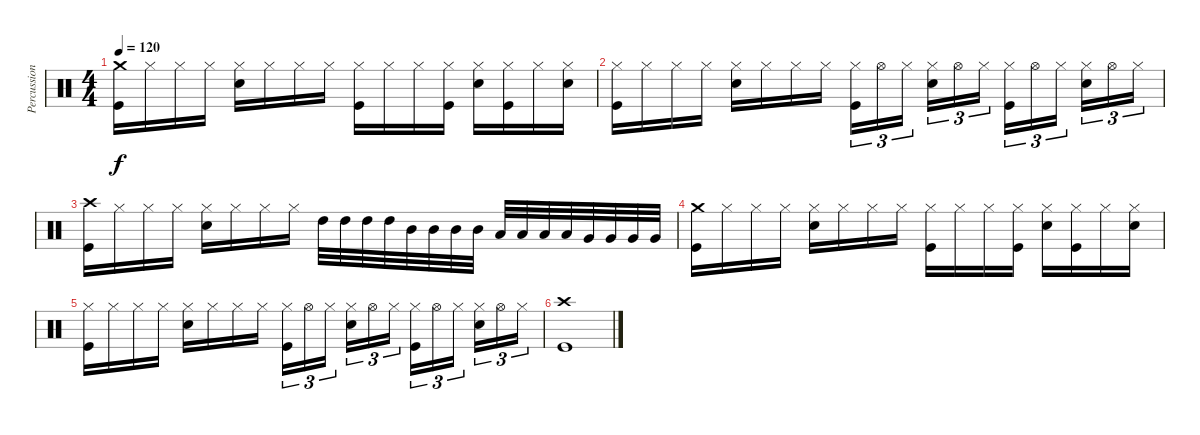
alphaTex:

\track ("Percussion" "Percussion") {instrument percussion}
\staff {score}
\articulation defaults
\ts (4 4)
\tempo 120
\clef neutral
\ks c
("Crash medium (hit)" "Kick (hit)").16{dy f} "Hi-Hat (closed)".16 "Hi-Hat (closed)".16 "Hi-Hat (closed)".16 ("Hi-Hat (closed)" "Electric Snare (hit)").16 "Hi-Hat (closed)".16 "Hi-Hat (closed)".16 "Hi-Hat (closed)".16 ("Hi-Hat (closed)" "Kick (hit)").16 "Hi-Hat (closed)".16 "Hi-Hat (closed)".16 ("Hi-Hat (closed)" "Kick (hit)").16 ("Hi-Hat (closed)" "Electric Snare (hit)").16 ("Hi-Hat (closed)" "Kick (hit)").16 "Hi-Hat (closed)".16 ("Hi-Hat (closed)" "Electric Snare (hit)").16 |
("Hi-Hat (closed)" "Kick (hit)").16 "Hi-Hat (closed)".16 "Hi-Hat (closed)".16 "Hi-Hat (closed)".16 ("Hi-Hat (closed)" "Electric Snare (hit)").16 "Hi-Hat (closed)".16 "Hi-Hat (closed)".16 "Hi-Hat (closed)".16 ("Hi-Hat (closed)" "Kick (hit)").16{tu (3 2)} "Hi-Hat (open)".16{tu (3 2)} "Hi-Hat (closed)".16{tu (3 2)} ("Hi-Hat (closed)" "Electric Snare (hit)").16{tu (3 2)} "Hi-Hat (open)".16{tu (3 2)} "Hi-Hat (closed)".16{tu (3 2)} ("Hi-Hat (closed)" "Kick (hit)").16{tu (3 2)} "Hi-Hat (open)".16{tu (3 2)} "Hi-Hat (closed)".16{tu (3 2)} ("Hi-Hat (closed)" "Electric Snare (hit)").16{tu (3 2)} "Hi-Hat (open)".16{tu (3 2)} "Hi-Hat (closed)".16{tu (3 2)} |
("Crash high (hit)" "Kick (hit)").16 "Hi-Hat (closed)".16 "Hi-Hat (closed)".16 "Hi-Hat (closed)".16 ("Hi-Hat (closed)" "Electric Snare (hit)").16 "Hi-Hat (closed)".16 "Hi-Hat (closed)".16 "Hi-Hat (closed)".16 "High Tom (hit)".32 "High Tom (hit)".32 "High Tom (hit)".32 "High Tom (hit)".32 "Mid Tom (hit)".32 "Mid Tom (hit)".32 "Mid Tom (hit)".32 "Mid Tom (hit)".32 "Low Tom (hit)".32 "Low Tom (hit)".32 "Low Tom (hit)".32 "Low Tom (hit)".32 "Very Low Tom (hit)".32 "Very Low Tom (hit)".32 "Very Low Tom (hit)".32 "Very Low Tom (hit)".32 |
("Crash medium (hit)" "Kick (hit)").16 "Hi-Hat (closed)".16 "Hi-Hat (closed)".16 "Hi-Hat (closed)".16 ("Hi-Hat (closed)" "Electric Snare (hit)").16 "Hi-Hat (closed)".16 "Hi-Hat (closed)".16 "Hi-Hat (closed)".16 ("Hi-Hat (closed)" "Kick (hit)").16 "Hi-Hat (closed)".16 "Hi-Hat (closed)".16 ("Hi-Hat (closed)" "Kick (hit)").16 ("Hi-Hat (closed)" "Electric Snare (hit)").16 ("Hi-Hat (closed)" "Kick (hit)").16 "Hi-Hat (closed)".16 ("Hi-Hat (closed)" "Electric Snare (hit)").16 |
("Hi-Hat (closed)" "Kick (hit)").16 "Hi-Hat (closed)".16 "Hi-Hat (closed)".16 "Hi-Hat (closed)".16 ("Hi-Hat (closed)" "Electric Snare (hit)").16 "Hi-Hat (closed)".16 "Hi-Hat (closed)".16 "Hi-Hat (closed)".16 ("Hi-Hat (closed)" "Kick (hit)").16{tu (3 2)} "Hi-Hat (open)".16{tu (3 2)} "Hi-Hat (closed)".16{tu (3 2)} ("Hi-Hat (closed)" "Electric Snare (hit)").16{tu (3 2)} "Hi-Hat (open)".16{tu (3 2)} "Hi-Hat (closed)".16{tu (3 2)} ("Hi-Hat (closed)" "Kick (hit)").16{tu (3 2)} "Hi-Hat (open)".16{tu (3 2)} "Hi-Hat (closed)".16{tu (3 2)} ("Hi-Hat (closed)" "Electric Snare (hit)").16{tu (3 2)} "Hi-Hat (open)".16{tu (3 2)} "Hi-Hat (closed)".16{tu (3 2)} |
("Crash high (hit)" "Kick (hit)").1
